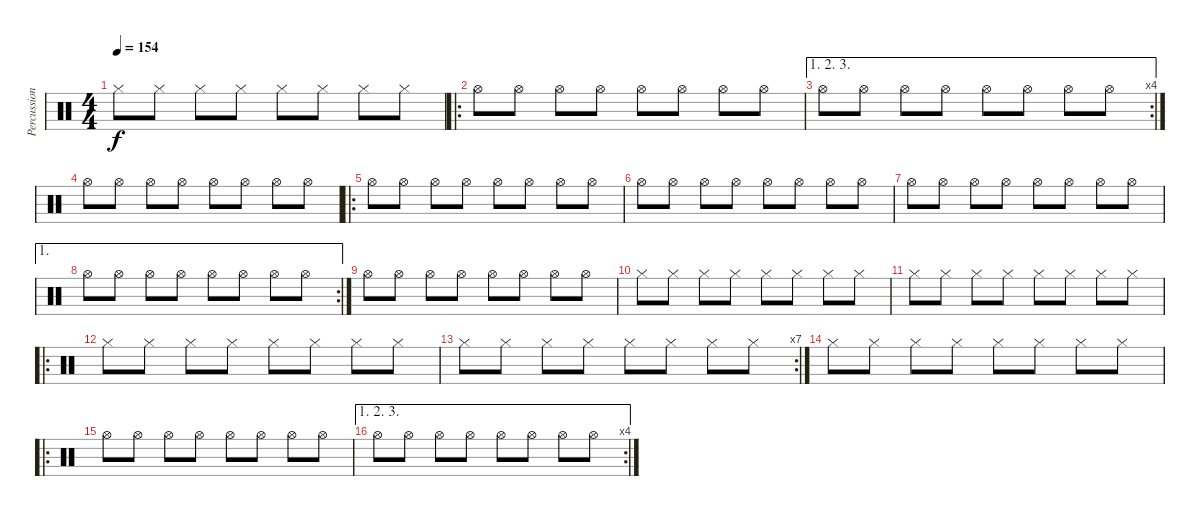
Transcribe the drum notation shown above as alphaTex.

\track ("Percussions" "Percussion") {instrument percussion}
\staff {score}
\articulation defaults
\ts (4 4)
\tempo 154
\clef neutral
\ks c "Hi-Hat (closed)".8{dy f} "Hi-Hat (closed)".8 "Hi-Hat (closed)".8 "Hi-Hat (closed)".8 "Hi-Hat (closed)".8 "Hi-Hat (closed)".8 "Hi-Hat (closed)".8 "Hi-Hat (closed)".8
|
\ro "Hi-Hat (open)".8 "Hi-Hat (open)".8 "Hi-Hat (open)".8 "Hi-Hat (open)".8 "Hi-Hat (open)".8 "Hi-Hat (open)".8 "Hi-Hat (open)".8 "Hi-Hat (open)".8
|
\ae (1 2 3)
\rc 4 "Hi-Hat (open)".8 "Hi-Hat (open)".8 "Hi-Hat (open)".8 "Hi-Hat (open)".8 "Hi-Hat (open)".8 "Hi-Hat (open)".8 "Hi-Hat (open)".8 "Hi-Hat (open)".8
|
"Hi-Hat (open)".8 "Hi-Hat (open)".8 "Hi-Hat (open)".8 "Hi-Hat (open)".8 "Hi-Hat (open)".8 "Hi-Hat (open)".8 "Hi-Hat (open)".8 "Hi-Hat (open)".8 |
\ro "Hi-Hat (open)".8 "Hi-Hat (open)".8 "Hi-Hat (open)".8 "Hi-Hat (open)".8 "Hi-Hat (open)".8 "Hi-Hat (open)".8 "Hi-Hat (open)".8 "Hi-Hat (open)".8
|
"Hi-Hat (open)".8 "Hi-Hat (open)".8 "Hi-Hat (open)".8 "Hi-Hat (open)".8 "Hi-Hat (open)".8 "Hi-Hat (open)".8 "Hi-Hat (open)".8 "Hi-Hat (open)".8 |
"Hi-Hat (open)".8 "Hi-Hat (open)".8 "Hi-Hat (open)".8 "Hi-Hat (open)".8 "Hi-Hat (open)".8 "Hi-Hat (open)".8 "Hi-Hat (open)".8 "Hi-Hat (open)".8 |
\ae 1
\rc 2 "Hi-Hat (open)".8 "Hi-Hat (open)".8 "Hi-Hat (open)".8 "Hi-Hat (open)".8 "Hi-Hat (open)".8 "Hi-Hat (open)".8 "Hi-Hat (open)".8 "Hi-Hat (open)".8
|
"Hi-Hat (open)".8 "Hi-Hat (open)".8 "Hi-Hat (open)".8 "Hi-Hat (open)".8 "Hi-Hat (open)".8 "Hi-Hat (open)".8 "Hi-Hat (open)".8 "Hi-Hat (open)".8 |
"Hi-Hat (closed)".8 "Hi-Hat (closed)".8 "Hi-Hat (closed)".8 "Hi-Hat (closed)".8 "Hi-Hat (closed)".8 "Hi-Hat (closed)".8 "Hi-Hat (closed)".8 "Hi-Hat (closed)".8 |
"Hi-Hat (closed)".8 "Hi-Hat (closed)".8 "Hi-Hat (closed)".8 "Hi-Hat (closed)".8 "Hi-Hat (closed)".8 "Hi-Hat (closed)".8 "Hi-Hat (closed)".8 "Hi-Hat (closed)".8 |
\ro "Hi-Hat (closed)".8 "Hi-Hat (closed)".8 "Hi-Hat (closed)".8 "Hi-Hat (closed)".8 "Hi-Hat (closed)".8 "Hi-Hat (closed)".8 "Hi-Hat (closed)".8 "Hi-Hat (closed)".8
|
\rc 7 "Hi-Hat (closed)".8 "Hi-Hat (closed)".8 "Hi-Hat (closed)".8 "Hi-Hat (closed)".8 "Hi-Hat (closed)".8 "Hi-Hat (closed)".8 "Hi-Hat (closed)".8 "Hi-Hat (closed)".8
|
"Hi-Hat (closed)".8 "Hi-Hat (closed)".8 "Hi-Hat (closed)".8 "Hi-Hat (closed)".8 "Hi-Hat (closed)".8 "Hi-Hat (closed)".8 "Hi-Hat (closed)".8 "Hi-Hat (closed)".8 |
\ro "Hi-Hat (open)".8 "Hi-Hat (open)".8 "Hi-Hat (open)".8 "Hi-Hat (open)".8 "Hi-Hat (open)".8 "Hi-Hat (open)".8 "Hi-Hat (open)".8 "Hi-Hat (open)".8
|
\ae (1 2 3)
\rc 4 "Hi-Hat (open)".8 "Hi-Hat (open)".8 "Hi-Hat (open)".8 "Hi-Hat (open)".8 "Hi-Hat (open)".8 "Hi-Hat (open)".8 "Hi-Hat (open)".8 "Hi-Hat (open)".8
